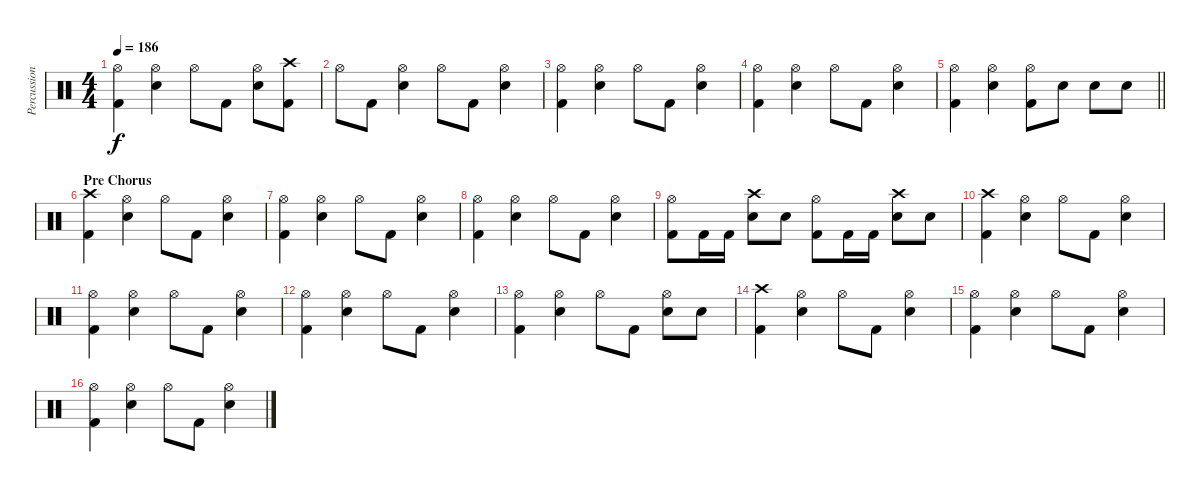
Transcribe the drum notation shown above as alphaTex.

\track ("Percussion" "Percussion") {instrument percussion}
\staff {score}
\articulation defaults
\ts (4 4)
\tempo 186
\clef neutral
\ks c
("Hi-Hat (open)" "Kick (hit) 2").4{dy f} ("Hi-Hat (open)" "Snare (hit) 2").4 "Hi-Hat (open)".8 "Kick (hit) 2".8 ("Hi-Hat (open)" "Snare (hit) 2").8 ("Crash high (hit)" "Kick (hit) 2").8 |
"Hi-Hat (open)".8 "Kick (hit) 2".8 ("Hi-Hat (open)" "Snare (hit) 2").4 "Hi-Hat (open)".8 "Kick (hit) 2".8 ("Hi-Hat (open)" "Snare (hit) 2").4 |
("Hi-Hat (open)" "Kick (hit) 2").4 ("Hi-Hat (open)" "Snare (hit) 2").4 "Hi-Hat (open)".8 "Kick (hit) 2".8 ("Hi-Hat (open)" "Snare (hit) 2").4 |
("Hi-Hat (open)" "Kick (hit) 2").4 ("Hi-Hat (open)" "Snare (hit) 2").4 "Hi-Hat (open)".8 "Kick (hit) 2".8 ("Hi-Hat (open)" "Snare (hit) 2").4 |
\barLineRight lightlight
("Hi-Hat (open)" "Kick (hit) 2").4 ("Hi-Hat (open)" "Snare (hit) 2").4 ("Hi-Hat (open)" "Kick (hit) 2").8 "Snare (hit) 2".8 "Snare (hit) 2".8 "Snare (hit) 2".8 |
\section ("" "Pre Chorus")
("Crash high (hit)" "Kick (hit) 2").4 ("Hi-Hat (open)" "Snare (hit) 2").4 "Hi-Hat (open)".8 "Kick (hit) 2".8 ("Hi-Hat (open)" "Snare (hit) 2").4 |
("Hi-Hat (open)" "Kick (hit) 2").4 ("Hi-Hat (open)" "Snare (hit) 2").4 "Hi-Hat (open)".8 "Kick (hit) 2".8 ("Hi-Hat (open)" "Snare (hit) 2").4 |
("Hi-Hat (open)" "Kick (hit) 2").4 ("Hi-Hat (open)" "Snare (hit) 2").4 "Hi-Hat (open)".8 "Kick (hit) 2".8 ("Hi-Hat (open)" "Snare (hit) 2").4 |
("Hi-Hat (open)" "Kick (hit) 2").8 "Kick (hit) 2".16 "Kick (hit) 2".16 ("Crash high (hit)" "Snare (hit) 2").8 "Snare (hit) 2".8 ("Hi-Hat (open)" "Kick (hit) 2").8 "Kick (hit) 2".16 "Kick (hit) 2".16 ("Crash high (hit)" "Snare (hit) 2").8 "Snare (hit) 2".8 |
("Crash high (hit)" "Kick (hit) 2").4 ("Hi-Hat (open)" "Snare (hit) 2").4 "Hi-Hat (open)".8 "Kick (hit) 2".8 ("Hi-Hat (open)" "Snare (hit) 2").4 |
("Hi-Hat (open)" "Kick (hit) 2").4 ("Hi-Hat (open)" "Snare (hit) 2").4 "Hi-Hat (open)".8 "Kick (hit) 2".8 ("Hi-Hat (open)" "Snare (hit) 2").4 |
("Hi-Hat (open)" "Kick (hit) 2").4 ("Hi-Hat (open)" "Snare (hit) 2").4 "Hi-Hat (open)".8 "Kick (hit) 2".8 ("Hi-Hat (open)" "Snare (hit) 2").4 |
("Hi-Hat (open)" "Kick (hit) 2").4 ("Hi-Hat (open)" "Snare (hit) 2").4 "Hi-Hat (open)".8 "Kick (hit) 2".8 ("Hi-Hat (open)" "Snare (hit) 2").8 "Snare (hit) 2".8 |
("Crash high (hit)" "Kick (hit) 2").4 ("Hi-Hat (open)" "Snare (hit) 2").4 "Hi-Hat (open)".8 "Kick (hit) 2".8 ("Hi-Hat (open)" "Snare (hit) 2").4 |
("Hi-Hat (open)" "Kick (hit) 2").4 ("Hi-Hat (open)" "Snare (hit) 2").4 "Hi-Hat (open)".8 "Kick (hit) 2".8 ("Hi-Hat (open)" "Snare (hit) 2").4 |
("Hi-Hat (open)" "Kick (hit) 2").4 ("Hi-Hat (open)" "Snare (hit) 2").4 "Hi-Hat (open)".8 "Kick (hit) 2".8 ("Hi-Hat (open)" "Snare (hit) 2").4
